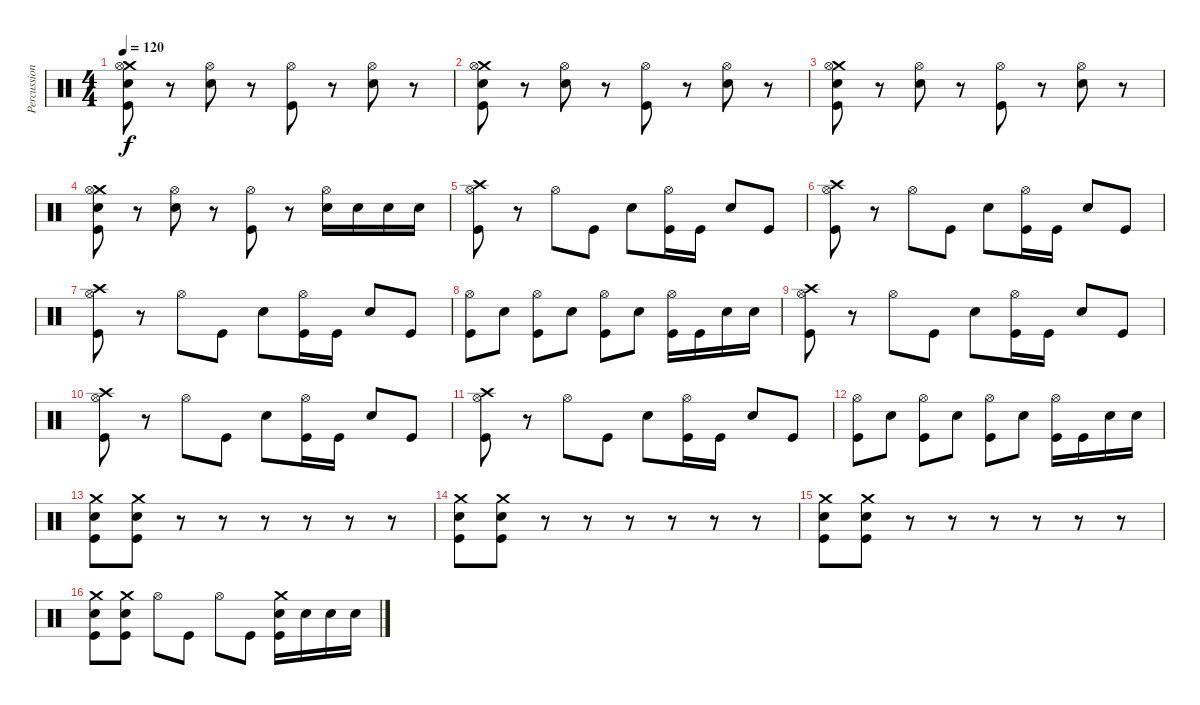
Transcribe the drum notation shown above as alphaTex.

\track ("Percussion" "Percussion") {instrument percussion}
\staff {score}
\articulation defaults
\ts (4 4)
\tempo 120
\clef neutral
\ks c
("Crash medium (hit)" "Hi-Hat (open)" "Electric Snare (hit)" "Kick (hit)").8{dy f} r.8 ("Hi-Hat (open)" "Electric Snare (hit)").8 r.8 ("Hi-Hat (open)" "Kick (hit)").8 r.8 ("Hi-Hat (open)" "Electric Snare (hit)").8 r.8 |
("Crash medium (hit)" "Hi-Hat (open)" "Electric Snare (hit)" "Kick (hit)").8 r.8 ("Hi-Hat (open)" "Electric Snare (hit)").8 r.8 ("Hi-Hat (open)" "Kick (hit)").8 r.8 ("Hi-Hat (open)" "Electric Snare (hit)").8 r.8 |
("Crash medium (hit)" "Hi-Hat (open)" "Electric Snare (hit)" "Kick (hit)").8 r.8 ("Hi-Hat (open)" "Electric Snare (hit)").8 r.8 ("Hi-Hat (open)" "Kick (hit)").8 r.8 ("Hi-Hat (open)" "Electric Snare (hit)").8 r.8 |
("Crash medium (hit)" "Hi-Hat (open)" "Electric Snare (hit)" "Kick (hit)").8 r.8 ("Hi-Hat (open)" "Electric Snare (hit)").8 r.8 ("Hi-Hat (open)" "Kick (hit)").8 r.8 ("Hi-Hat (open)" "Electric Snare (hit)").16 "Electric Snare (hit)".16 "Electric Snare (hit)".16 "Electric Snare (hit)".16 |
("Crash high (hit)" "Hi-Hat (open)" "Kick (hit)").8 r.8 "Hi-Hat (open)".8 "Kick (hit)".8 "Electric Snare (hit)".8 ("Hi-Hat (open)" "Kick (hit)").16 "Kick (hit)".16 "Electric Snare (hit)".8 "Kick (hit)".8 |
("Crash high (hit)" "Hi-Hat (open)" "Kick (hit)").8 r.8 "Hi-Hat (open)".8 "Kick (hit)".8 "Electric Snare (hit)".8 ("Hi-Hat (open)" "Kick (hit)").16 "Kick (hit)".16 "Electric Snare (hit)".8 "Kick (hit)".8 |
("Crash high (hit)" "Hi-Hat (open)" "Kick (hit)").8 r.8 "Hi-Hat (open)".8 "Kick (hit)".8 "Electric Snare (hit)".8 ("Hi-Hat (open)" "Kick (hit)").16 "Kick (hit)".16 "Electric Snare (hit)".8 "Kick (hit)".8 |
("Hi-Hat (open)" "Kick (hit)").8 "Electric Snare (hit)".8 ("Hi-Hat (open)" "Kick (hit)").8 "Electric Snare (hit)".8 ("Hi-Hat (open)" "Kick (hit)").8 "Electric Snare (hit)".8 ("Hi-Hat (open)" "Kick (hit)").16 "Kick (hit)".16 "Electric Snare (hit)".16 "Electric Snare (hit)".16 |
("Crash high (hit)" "Hi-Hat (open)" "Kick (hit)").8 r.8 "Hi-Hat (open)".8 "Kick (hit)".8 "Electric Snare (hit)".8 ("Hi-Hat (open)" "Kick (hit)").16 "Kick (hit)".16 "Electric Snare (hit)".8 "Kick (hit)".8 |
("Crash high (hit)" "Hi-Hat (open)" "Kick (hit)").8 r.8 "Hi-Hat (open)".8 "Kick (hit)".8 "Electric Snare (hit)".8 ("Hi-Hat (open)" "Kick (hit)").16 "Kick (hit)".16 "Electric Snare (hit)".8 "Kick (hit)".8 |
("Crash high (hit)" "Hi-Hat (open)" "Kick (hit)").8 r.8 "Hi-Hat (open)".8 "Kick (hit)".8 "Electric Snare (hit)".8 ("Hi-Hat (open)" "Kick (hit)").16 "Kick (hit)".16 "Electric Snare (hit)".8 "Kick (hit)".8 |
("Hi-Hat (open)" "Kick (hit)").8 "Electric Snare (hit)".8 ("Hi-Hat (open)" "Kick (hit)").8 "Electric Snare (hit)".8 ("Hi-Hat (open)" "Kick (hit)").8 "Electric Snare (hit)".8 ("Hi-Hat (open)" "Kick (hit)").16 "Kick (hit)".16 "Electric Snare (hit)".16 "Electric Snare (hit)".16 |
("Crash medium (hit)" "Electric Snare (hit)" "Kick (hit)").8 ("Crash medium (hit)" "Electric Snare (hit)" "Kick (hit)").8 r.8 r.8 r.8 r.8 r.8 r.8 |
("Crash medium (hit)" "Electric Snare (hit)" "Kick (hit)").8 ("Crash medium (hit)" "Electric Snare (hit)" "Kick (hit)").8 r.8 r.8 r.8 r.8 r.8 r.8 |
("Crash medium (hit)" "Electric Snare (hit)" "Kick (hit)").8 ("Crash medium (hit)" "Electric Snare (hit)" "Kick (hit)").8 r.8 r.8 r.8 r.8 r.8 r.8 |
("Crash medium (hit)" "Electric Snare (hit)" "Kick (hit)").8 ("Crash medium (hit)" "Electric Snare (hit)" "Kick (hit)").8 "Hi-Hat (open)".8 "Kick (hit)".8 "Hi-Hat (open)".8 "Kick (hit)".8 ("Crash medium (hit)" "Electric Snare (hit)" "Kick (hit)").16 "Electric Snare (hit)".16 "Electric Snare (hit)".16 "Electric Snare (hit)".16
